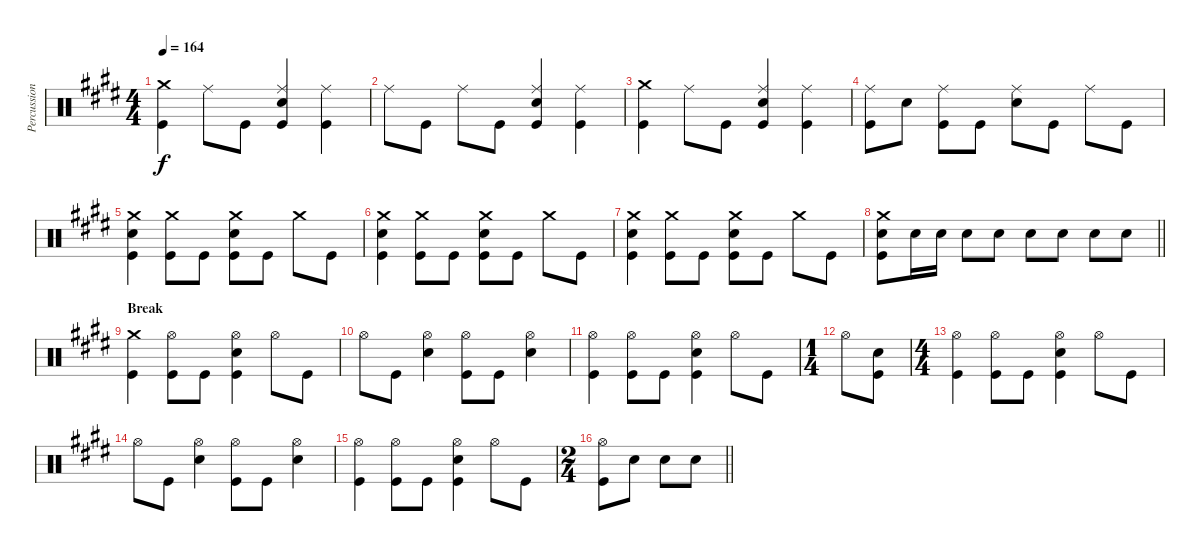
\track ("Percussion" "Percussion") {instrument percussion}
\staff {score}
\articulation defaults
\ts (4 4)
\tempo 164
\clef neutral
\ks e
("Crash medium (hit)" "Kick (hit)").4{dy f} "Ride (middle)".8 "Kick (hit)".8 ("Ride (middle)" "Electric Snare (hit)" "Kick (hit)").4 ("Ride (middle)" "Kick (hit)").4 |
"Ride (middle)".8 "Kick (hit)".8 "Ride (middle)".8 "Kick (hit)".8 ("Ride (middle)" "Electric Snare (hit)" "Kick (hit)").4 ("Ride (middle)" "Kick (hit)").4 |
("Crash medium (hit)" "Kick (hit)").4 "Ride (middle)".8 "Kick (hit)".8 ("Ride (middle)" "Electric Snare (hit)" "Kick (hit)").4 ("Ride (middle)" "Kick (hit)").4 |
("Ride (middle)" "Kick (hit)").8 "Electric Snare (hit)".8 ("Ride (middle)" "Kick (hit)").8 "Kick (hit)".8 ("Ride (middle)" "Electric Snare (hit)").8 "Kick (hit)".8 "Ride (middle)".8 "Kick (hit)".8 |
("Crash medium (hit)" "Electric Snare (hit)" "Kick (hit)").4 ("Crash medium (hit)" "Kick (hit)").8 "Kick (hit)".8 ("Crash medium (hit)" "Electric Snare (hit)" "Kick (hit)").8 "Kick (hit)".8 "Crash medium (hit)".8 "Kick (hit)".8 |
("Crash medium (hit)" "Electric Snare (hit)" "Kick (hit)").4 ("Crash medium (hit)" "Kick (hit)").8 "Kick (hit)".8 ("Crash medium (hit)" "Electric Snare (hit)" "Kick (hit)").8 "Kick (hit)".8 "Crash medium (hit)".8 "Kick (hit)".8 |
("Crash medium (hit)" "Electric Snare (hit)" "Kick (hit)").4 ("Crash medium (hit)" "Kick (hit)").8 "Kick (hit)".8 ("Crash medium (hit)" "Electric Snare (hit)" "Kick (hit)").8 "Kick (hit)".8 "Crash medium (hit)".8 "Kick (hit)".8 |
\barLineRight lightlight
("Crash medium (hit)" "Electric Snare (hit)" "Kick (hit)").8 "Electric Snare (hit)".16 "Electric Snare (hit)".16 "Electric Snare (hit)".8 "Electric Snare (hit)".8 "Electric Snare (hit)".8 "Electric Snare (hit)".8 "Electric Snare (hit)".8 "Electric Snare (hit)".8 |
\section ("" "Break")
("Crash medium (hit)" "Kick (hit)").4 ("Hi-Hat (open)" "Kick (hit)").8 "Kick (hit)".8 ("Hi-Hat (open)" "Electric Snare (hit)" "Kick (hit)").4 "Hi-Hat (open)".8 "Kick (hit)".8 |
"Hi-Hat (open)".8 "Kick (hit)".8 ("Hi-Hat (open)" "Electric Snare (hit)").4 ("Hi-Hat (open)" "Kick (hit)").8 "Kick (hit)".8 ("Hi-Hat (open)" "Electric Snare (hit)").4 |
("Hi-Hat (open)" "Kick (hit)").4 ("Hi-Hat (open)" "Kick (hit)").8 "Kick (hit)".8 ("Hi-Hat (open)" "Electric Snare (hit)" "Kick (hit)").4 "Hi-Hat (open)".8 "Kick (hit)".8 |
\ts (1 4)
"Hi-Hat (open)".8 ("Electric Snare (hit)" "Kick (hit)").8 |
\ts (4 4)
("Hi-Hat (open)" "Kick (hit)").4 ("Hi-Hat (open)" "Kick (hit)").8 "Kick (hit)".8 ("Hi-Hat (open)" "Electric Snare (hit)" "Kick (hit)").4 "Hi-Hat (open)".8 "Kick (hit)".8 |
"Hi-Hat (open)".8 "Kick (hit)".8 ("Hi-Hat (open)" "Electric Snare (hit)").4 ("Hi-Hat (open)" "Kick (hit)").8 "Kick (hit)".8 ("Hi-Hat (open)" "Electric Snare (hit)").4 |
("Hi-Hat (open)" "Kick (hit)").4 ("Hi-Hat (open)" "Kick (hit)").8 "Kick (hit)".8 ("Hi-Hat (open)" "Electric Snare (hit)" "Kick (hit)").4 "Hi-Hat (open)".8 "Kick (hit)".8 |
\ts (2 4)
\barLineRight lightlight
("Hi-Hat (open)" "Kick (hit)").8 "Electric Snare (hit)".8 "Electric Snare (hit)".8 "Electric Snare (hit)".8
